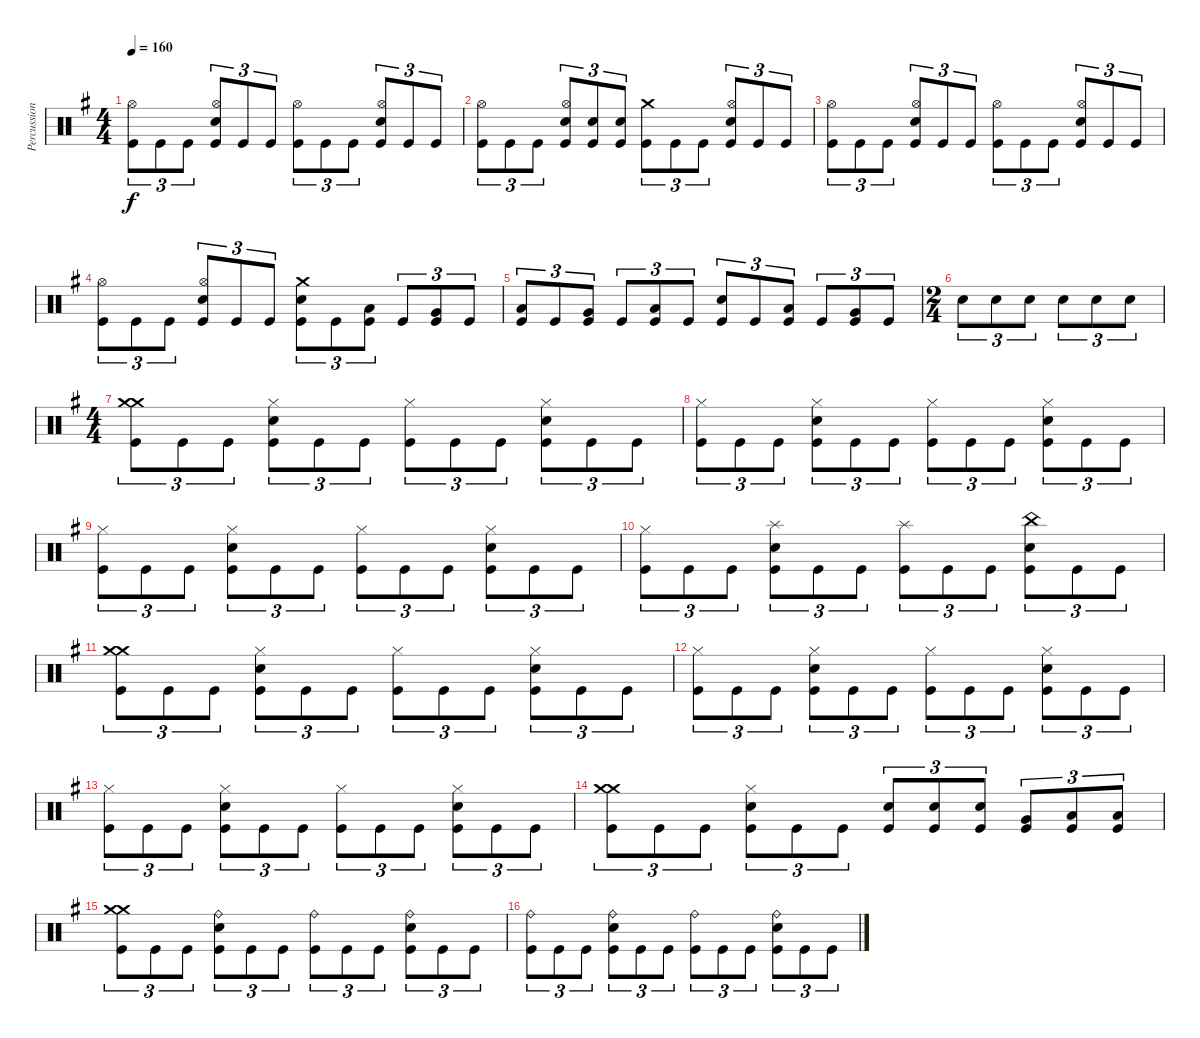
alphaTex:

\track ("Percussions" "Percussion") {instrument percussion}
\staff {score}
\articulation defaults
\ts (4 4)
\tempo 160
\clef neutral
\ks g
("Kick (hit)" "Hi-Hat (open)").8{tu (3 2) dy f} "Kick (hit)".8{tu (3 2)} "Kick (hit)".8{tu (3 2)} ("Kick (hit)" "Electric Snare (hit)" "Hi-Hat (open)").8{tu (3 2)} "Kick (hit)".8{tu (3 2)} "Kick (hit)".8{tu (3 2)} ("Kick (hit)" "Hi-Hat (open)").8{tu (3 2)} "Kick (hit)".8{tu (3 2)} "Kick (hit)".8{tu (3 2)} ("Kick (hit)" "Electric Snare (hit)" "Hi-Hat (open)").8{tu (3 2)} "Kick (hit)".8{tu (3 2)} "Kick (hit)".8{tu (3 2)} |
("Kick (hit)" "Hi-Hat (open)").8{tu (3 2)} "Kick (hit)".8{tu (3 2)} "Kick (hit)".8{tu (3 2)} ("Kick (hit)" "Electric Snare (hit)" "Hi-Hat (open)").8{tu (3 2)} ("Kick (hit)" "Electric Snare (hit)").8{tu (3 2)} ("Kick (hit)" "Electric Snare (hit)").8{tu (3 2)} ("Kick (hit)" "Crash medium (hit)").8{tu (3 2)} "Kick (hit)".8{tu (3 2)} "Kick (hit)".8{tu (3 2)} ("Kick (hit)" "Electric Snare (hit)" "Hi-Hat (open)").8{tu (3 2)} "Kick (hit)".8{tu (3 2)} "Kick (hit)".8{tu (3 2)} |
("Kick (hit)" "Hi-Hat (open)").8{tu (3 2)} "Kick (hit)".8{tu (3 2)} "Kick (hit)".8{tu (3 2)} ("Kick (hit)" "Electric Snare (hit)" "Hi-Hat (open)").8{tu (3 2)} "Kick (hit)".8{tu (3 2)} "Kick (hit)".8{tu (3 2)} ("Kick (hit)" "Hi-Hat (open)").8{tu (3 2)} "Kick (hit)".8{tu (3 2)} "Kick (hit)".8{tu (3 2)} ("Kick (hit)" "Electric Snare (hit)" "Hi-Hat (open)").8{tu (3 2)} "Kick (hit)".8{tu (3 2)} "Kick (hit)".8{tu (3 2)} |
("Kick (hit)" "Hi-Hat (open)").8{tu (3 2)} "Kick (hit)".8{tu (3 2)} "Kick (hit)".8{tu (3 2)} ("Kick (hit)" "Electric Snare (hit)" "Hi-Hat (open)").8{tu (3 2)} "Kick (hit)".8{tu (3 2)} "Kick (hit)".8{tu (3 2)} ("Kick (hit)" "Electric Snare (hit)" "Crash medium (hit)").8{tu (3 2)} "Kick (hit)".8{tu (3 2)} ("Kick (hit)" "Low Tom (hit)").8{tu (3 2)} "Kick (hit)".8{tu (3 2)} ("Kick (hit)" "Very Low Tom (hit)").8{tu (3 2)} "Kick (hit)".8{tu (3 2)} |
("Kick (hit)" "Low Floor Tom (hit)").8{tu (3 2)} "Kick (hit)".8{tu (3 2)} ("Kick (hit)" "Very Low Tom (hit)").8{tu (3 2)} "Kick (hit)".8{tu (3 2)} ("Kick (hit)" "Low Tom (hit)").8{tu (3 2)} "Kick (hit)".8{tu (3 2)} ("Kick (hit)" "Electric Snare (hit)").8{tu (3 2)} "Kick (hit)".8{tu (3 2)} ("Kick (hit)" "Low Tom (hit)").8{tu (3 2)} "Kick (hit)".8{tu (3 2)} ("Kick (hit)" "Very Low Tom (hit)").8{tu (3 2)} "Kick (hit)".8{tu (3 2)} |
\ts (2 4)
"Electric Snare (hit)".8{tu (3 2)} "Electric Snare (hit)".8{tu (3 2)} "Electric Snare (hit)".8{tu (3 2)} "Electric Snare (hit)".8{tu (3 2)} "Electric Snare (hit)".8{tu (3 2)} "Electric Snare (hit)".8{tu (3 2)} |
\ts (4 4)
("Kick (hit)" "Crash medium (hit)" "Crash medium (hit)").8{tu (3 2)} "Kick (hit)".8{tu (3 2)} "Kick (hit)".8{tu (3 2)} ("Kick (hit)" "Electric Snare (hit)" "Hi-Hat (closed)").8{tu (3 2)} "Kick (hit)".8{tu (3 2)} "Kick (hit)".8{tu (3 2)} ("Kick (hit)" "Hi-Hat (closed)").8{tu (3 2)} "Kick (hit)".8{tu (3 2)} "Kick (hit)".8{tu (3 2)} ("Kick (hit)" "Electric Snare (hit)" "Hi-Hat (closed)").8{tu (3 2)} "Kick (hit)".8{tu (3 2)} "Kick (hit)".8{tu (3 2)} |
("Kick (hit)" "Hi-Hat (closed)").8{tu (3 2)} "Kick (hit)".8{tu (3 2)} "Kick (hit)".8{tu (3 2)} ("Kick (hit)" "Electric Snare (hit)" "Hi-Hat (closed)").8{tu (3 2)} "Kick (hit)".8{tu (3 2)} "Kick (hit)".8{tu (3 2)} ("Kick (hit)" "Hi-Hat (closed)").8{tu (3 2)} "Kick (hit)".8{tu (3 2)} "Kick (hit)".8{tu (3 2)} ("Kick (hit)" "Electric Snare (hit)" "Hi-Hat (closed)").8{tu (3 2)} "Kick (hit)".8{tu (3 2)} "Kick (hit)".8{tu (3 2)} |
("Kick (hit)" "Hi-Hat (closed)").8{tu (3 2)} "Kick (hit)".8{tu (3 2)} "Kick (hit)".8{tu (3 2)} ("Kick (hit)" "Electric Snare (hit)" "Hi-Hat (closed)").8{tu (3 2)} "Kick (hit)".8{tu (3 2)} "Kick (hit)".8{tu (3 2)} ("Kick (hit)" "Hi-Hat (closed)").8{tu (3 2)} "Kick (hit)".8{tu (3 2)} "Kick (hit)".8{tu (3 2)} ("Kick (hit)" "Electric Snare (hit)" "Hi-Hat (closed)").8{tu (3 2)} "Kick (hit)".8{tu (3 2)} "Kick (hit)".8{tu (3 2)} |
("Kick (hit)" "Hi-Hat (closed)").8{tu (3 2)} "Kick (hit)".8{tu (3 2)} "Kick (hit)".8{tu (3 2)} ("Kick (hit)" "Electric Snare (hit)" "Splash (hit)").8{tu (3 2)} "Kick (hit)".8{tu (3 2)} "Kick (hit)".8{tu (3 2)} ("Kick (hit)" "Splash (hit)").8{tu (3 2)} "Kick (hit)".8{tu (3 2)} "Kick (hit)".8{tu (3 2)} ("Kick (hit)" "Electric Snare (hit)" "China (hit)").8{tu (3 2)} "Kick (hit)".8{tu (3 2)} "Kick (hit)".8{tu (3 2)} |
("Kick (hit)" "Crash medium (hit)" "Crash medium (hit)").8{tu (3 2)} "Kick (hit)".8{tu (3 2)} "Kick (hit)".8{tu (3 2)} ("Kick (hit)" "Electric Snare (hit)" "Hi-Hat (closed)").8{tu (3 2)} "Kick (hit)".8{tu (3 2)} "Kick (hit)".8{tu (3 2)} ("Kick (hit)" "Hi-Hat (closed)").8{tu (3 2)} "Kick (hit)".8{tu (3 2)} "Kick (hit)".8{tu (3 2)} ("Kick (hit)" "Electric Snare (hit)" "Hi-Hat (closed)").8{tu (3 2)} "Kick (hit)".8{tu (3 2)} "Kick (hit)".8{tu (3 2)} |
("Kick (hit)" "Hi-Hat (closed)").8{tu (3 2)} "Kick (hit)".8{tu (3 2)} "Kick (hit)".8{tu (3 2)} ("Kick (hit)" "Electric Snare (hit)" "Hi-Hat (closed)").8{tu (3 2)} "Kick (hit)".8{tu (3 2)} "Kick (hit)".8{tu (3 2)} ("Kick (hit)" "Hi-Hat (closed)").8{tu (3 2)} "Kick (hit)".8{tu (3 2)} "Kick (hit)".8{tu (3 2)} ("Kick (hit)" "Electric Snare (hit)" "Hi-Hat (closed)").8{tu (3 2)} "Kick (hit)".8{tu (3 2)} "Kick (hit)".8{tu (3 2)} |
("Kick (hit)" "Hi-Hat (closed)").8{tu (3 2)} "Kick (hit)".8{tu (3 2)} "Kick (hit)".8{tu (3 2)} ("Kick (hit)" "Electric Snare (hit)" "Hi-Hat (closed)").8{tu (3 2)} "Kick (hit)".8{tu (3 2)} "Kick (hit)".8{tu (3 2)} ("Kick (hit)" "Hi-Hat (closed)").8{tu (3 2)} "Kick (hit)".8{tu (3 2)} "Kick (hit)".8{tu (3 2)} ("Kick (hit)" "Electric Snare (hit)" "Hi-Hat (closed)").8{tu (3 2)} "Kick (hit)".8{tu (3 2)} "Kick (hit)".8{tu (3 2)} |
("Kick (hit)" "Crash medium (hit)" "Crash medium (hit)").8{tu (3 2)} "Kick (hit)".8{tu (3 2)} "Kick (hit)".8{tu (3 2)} ("Kick (hit)" "Electric Snare (hit)" "Hi-Hat (closed)").8{tu (3 2)} "Kick (hit)".8{tu (3 2)} "Kick (hit)".8{tu (3 2)} ("Kick (hit)" "Electric Snare (hit)").8{tu (3 2)} ("Kick (hit)" "Electric Snare (hit)").8{tu (3 2)} ("Kick (hit)" "Electric Snare (hit)").8{tu (3 2)} ("Kick (hit)" "Very Low Tom (hit)").8{tu (3 2)} ("Kick (hit)" "Low Tom (hit)").8{tu (3 2)} ("Kick (hit)" "Low Floor Tom (hit)").8{tu (3 2)} |
("Kick (hit)" "Crash medium (hit)" "Crash medium (hit)").8{tu (3 2)} "Kick (hit)".8{tu (3 2)} "Kick (hit)".8{tu (3 2)} ("Kick (hit)" "Electric Snare (hit)" "Ride (bell)").8{tu (3 2)} "Kick (hit)".8{tu (3 2)} "Kick (hit)".8{tu (3 2)} ("Kick (hit)" "Ride (bell)").8{tu (3 2)} "Kick (hit)".8{tu (3 2)} "Kick (hit)".8{tu (3 2)} ("Kick (hit)" "Electric Snare (hit)" "Ride (bell)").8{tu (3 2)} "Kick (hit)".8{tu (3 2)} "Kick (hit)".8{tu (3 2)} |
("Kick (hit)" "Ride (bell)").8{tu (3 2)} "Kick (hit)".8{tu (3 2)} "Kick (hit)".8{tu (3 2)} ("Kick (hit)" "Electric Snare (hit)" "Ride (bell)").8{tu (3 2)} "Kick (hit)".8{tu (3 2)} "Kick (hit)".8{tu (3 2)} ("Kick (hit)" "Ride (bell)").8{tu (3 2)} "Kick (hit)".8{tu (3 2)} "Kick (hit)".8{tu (3 2)} ("Kick (hit)" "Electric Snare (hit)" "Ride (bell)").8{tu (3 2)} "Kick (hit)".8{tu (3 2)} "Kick (hit)".8{tu (3 2)}
